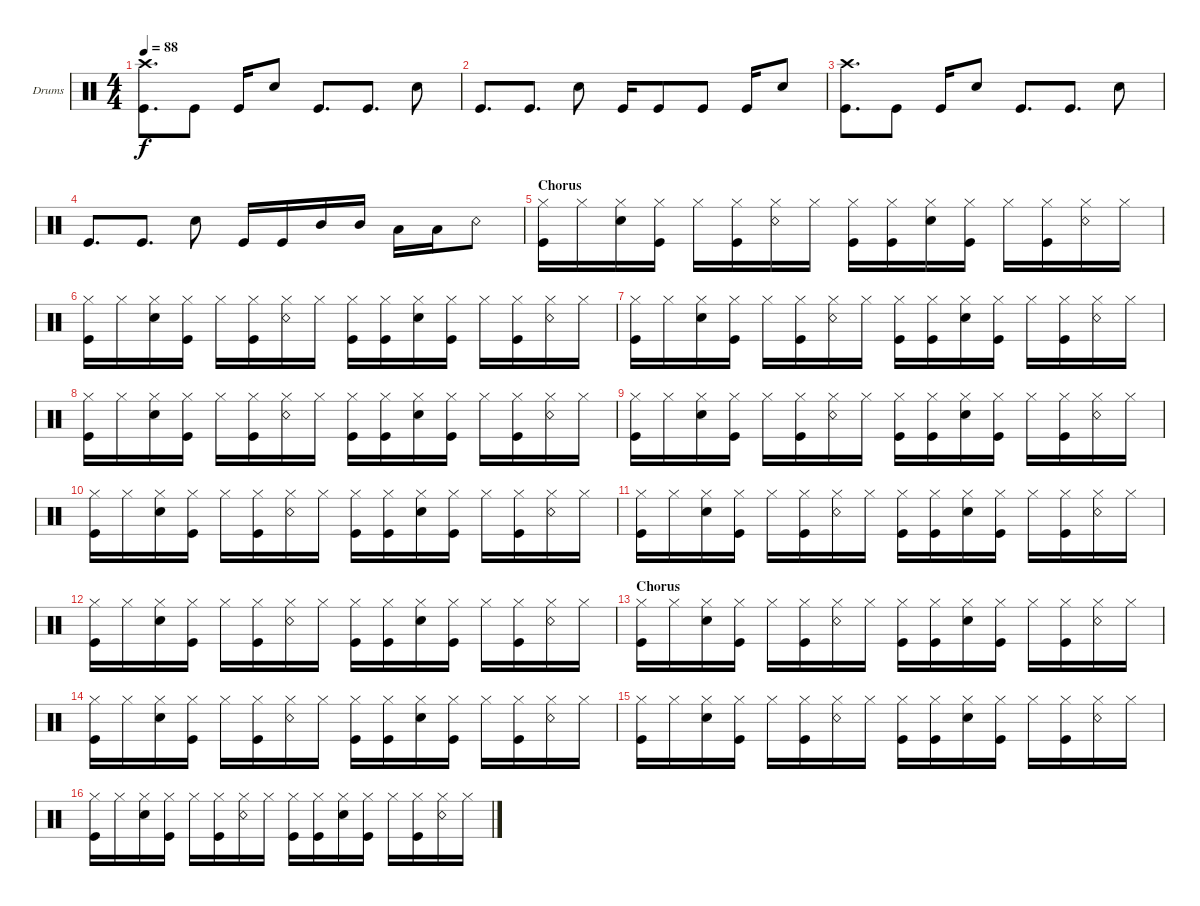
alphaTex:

\bracketExtendMode groupsimilarinstruments
\firstSystemTrackNameOrientation horizontal
\otherSystemsTrackNameOrientation horizontal
\track ("Drums" "Drums") {instrument percussion}
\staff {score}
\articulation defaults
\ts (4 4)
\tempo 88
\clef neutral
\ks c
("Kick (hit)" "Crash high (hit)").8{d dy f} "Kick (hit)".8 "Kick (hit)".16 "Snare (hit) 2".8 "Kick (hit)".8{d} "Kick (hit)".8{d} "Snare (hit) 2".8 |
"Kick (hit)".8{d} "Kick (hit)".8{d} "Snare (hit) 2".8 "Kick (hit)".16 "Kick (hit)".8 "Kick (hit)".8 "Kick (hit)".16 "Snare (hit) 2".8 |
("Kick (hit)" "Crash high (hit)").8{d} "Kick (hit)".8 "Kick (hit)".16 "Snare (hit) 2".8 "Kick (hit)".8{d} "Kick (hit)".8{d} "Snare (hit) 2".8 |
"Kick (hit)".8{d} "Kick (hit)".8{d} "Snare (hit) 2".8 "Kick (hit)".16 "Kick (hit)".16 "Mid Tom (hit)".16 "Mid Tom (hit)".16 "Low Tom (hit)".16 "Low Tom (hit)".16 "Snare (rim shot)".8 |
\section ("" "Chorus")
("Hi-Hat (closed)" "Kick (hit)").16 "Hi-Hat (closed)".16 ("Hi-Hat (closed)" "Snare (hit) 2").16 ("Hi-Hat (closed)" "Kick (hit)").16 "Hi-Hat (closed)".16 ("Hi-Hat (closed)" "Kick (hit)").16 ("Hi-Hat (closed)" "Snare (rim shot)").16 "Hi-Hat (closed)".16 ("Hi-Hat (closed)" "Kick (hit)").16 ("Hi-Hat (closed)" "Kick (hit)").16 ("Hi-Hat (closed)" "Snare (hit) 2").16 ("Hi-Hat (closed)" "Kick (hit)").16 "Hi-Hat (closed)".16 ("Hi-Hat (closed)" "Kick (hit)").16 ("Hi-Hat (closed)" "Snare (rim shot)").16 "Hi-Hat (closed)".16 |
("Hi-Hat (closed)" "Kick (hit)").16 "Hi-Hat (closed)".16 ("Hi-Hat (closed)" "Snare (hit) 2").16 ("Hi-Hat (closed)" "Kick (hit)").16 "Hi-Hat (closed)".16 ("Hi-Hat (closed)" "Kick (hit)").16 ("Hi-Hat (closed)" "Snare (rim shot)").16 "Hi-Hat (closed)".16 ("Hi-Hat (closed)" "Kick (hit)").16 ("Hi-Hat (closed)" "Kick (hit)").16 ("Hi-Hat (closed)" "Snare (hit) 2").16 ("Hi-Hat (closed)" "Kick (hit)").16 "Hi-Hat (closed)".16 ("Hi-Hat (closed)" "Kick (hit)").16 ("Hi-Hat (closed)" "Snare (rim shot)").16 "Hi-Hat (closed)".16 |
("Hi-Hat (closed)" "Kick (hit)").16 "Hi-Hat (closed)".16 ("Hi-Hat (closed)" "Snare (hit) 2").16 ("Hi-Hat (closed)" "Kick (hit)").16 "Hi-Hat (closed)".16 ("Hi-Hat (closed)" "Kick (hit)").16 ("Hi-Hat (closed)" "Snare (rim shot)").16 "Hi-Hat (closed)".16 ("Hi-Hat (closed)" "Kick (hit)").16 ("Hi-Hat (closed)" "Kick (hit)").16 ("Hi-Hat (closed)" "Snare (hit) 2").16 ("Hi-Hat (closed)" "Kick (hit)").16 "Hi-Hat (closed)".16 ("Hi-Hat (closed)" "Kick (hit)").16 ("Hi-Hat (closed)" "Snare (rim shot)").16 "Hi-Hat (closed)".16 |
("Hi-Hat (closed)" "Kick (hit)").16 "Hi-Hat (closed)".16 ("Hi-Hat (closed)" "Snare (hit) 2").16 ("Hi-Hat (closed)" "Kick (hit)").16 "Hi-Hat (closed)".16 ("Hi-Hat (closed)" "Kick (hit)").16 ("Hi-Hat (closed)" "Snare (rim shot)").16 "Hi-Hat (closed)".16 ("Hi-Hat (closed)" "Kick (hit)").16 ("Hi-Hat (closed)" "Kick (hit)").16 ("Hi-Hat (closed)" "Snare (hit) 2").16 ("Hi-Hat (closed)" "Kick (hit)").16 "Hi-Hat (closed)".16 ("Hi-Hat (closed)" "Kick (hit)").16 ("Hi-Hat (closed)" "Snare (rim shot)").16 "Hi-Hat (closed)".16 |
("Hi-Hat (closed)" "Kick (hit)").16 "Hi-Hat (closed)".16 ("Hi-Hat (closed)" "Snare (hit) 2").16 ("Hi-Hat (closed)" "Kick (hit)").16 "Hi-Hat (closed)".16 ("Hi-Hat (closed)" "Kick (hit)").16 ("Hi-Hat (closed)" "Snare (rim shot)").16 "Hi-Hat (closed)".16 ("Hi-Hat (closed)" "Kick (hit)").16 ("Hi-Hat (closed)" "Kick (hit)").16 ("Hi-Hat (closed)" "Snare (hit) 2").16 ("Hi-Hat (closed)" "Kick (hit)").16 "Hi-Hat (closed)".16 ("Hi-Hat (closed)" "Kick (hit)").16 ("Hi-Hat (closed)" "Snare (rim shot)").16 "Hi-Hat (closed)".16 |
("Hi-Hat (closed)" "Kick (hit)").16 "Hi-Hat (closed)".16 ("Hi-Hat (closed)" "Snare (hit) 2").16 ("Hi-Hat (closed)" "Kick (hit)").16 "Hi-Hat (closed)".16 ("Hi-Hat (closed)" "Kick (hit)").16 ("Hi-Hat (closed)" "Snare (rim shot)").16 "Hi-Hat (closed)".16 ("Hi-Hat (closed)" "Kick (hit)").16 ("Hi-Hat (closed)" "Kick (hit)").16 ("Hi-Hat (closed)" "Snare (hit) 2").16 ("Hi-Hat (closed)" "Kick (hit)").16 "Hi-Hat (closed)".16 ("Hi-Hat (closed)" "Kick (hit)").16 ("Hi-Hat (closed)" "Snare (rim shot)").16 "Hi-Hat (closed)".16 |
("Hi-Hat (closed)" "Kick (hit)").16 "Hi-Hat (closed)".16 ("Hi-Hat (closed)" "Snare (hit) 2").16 ("Hi-Hat (closed)" "Kick (hit)").16 "Hi-Hat (closed)".16 ("Hi-Hat (closed)" "Kick (hit)").16 ("Hi-Hat (closed)" "Snare (rim shot)").16 "Hi-Hat (closed)".16 ("Hi-Hat (closed)" "Kick (hit)").16 ("Hi-Hat (closed)" "Kick (hit)").16 ("Hi-Hat (closed)" "Snare (hit) 2").16 ("Hi-Hat (closed)" "Kick (hit)").16 "Hi-Hat (closed)".16 ("Hi-Hat (closed)" "Kick (hit)").16 ("Hi-Hat (closed)" "Snare (rim shot)").16 "Hi-Hat (closed)".16 |
("Hi-Hat (closed)" "Kick (hit)").16 "Hi-Hat (closed)".16 ("Hi-Hat (closed)" "Snare (hit) 2").16 ("Hi-Hat (closed)" "Kick (hit)").16 "Hi-Hat (closed)".16 ("Hi-Hat (closed)" "Kick (hit)").16 ("Hi-Hat (closed)" "Snare (rim shot)").16 "Hi-Hat (closed)".16 ("Hi-Hat (closed)" "Kick (hit)").16 ("Hi-Hat (closed)" "Kick (hit)").16 ("Hi-Hat (closed)" "Snare (hit) 2").16 ("Hi-Hat (closed)" "Kick (hit)").16 "Hi-Hat (closed)".16 ("Hi-Hat (closed)" "Kick (hit)").16 ("Hi-Hat (closed)" "Snare (rim shot)").16 "Hi-Hat (closed)".16 |
\section ("" "Chorus")
("Hi-Hat (closed)" "Kick (hit)").16 "Hi-Hat (closed)".16 ("Hi-Hat (closed)" "Snare (hit) 2").16 ("Hi-Hat (closed)" "Kick (hit)").16 "Hi-Hat (closed)".16 ("Hi-Hat (closed)" "Kick (hit)").16 ("Hi-Hat (closed)" "Snare (rim shot)").16 "Hi-Hat (closed)".16 ("Hi-Hat (closed)" "Kick (hit)").16 ("Hi-Hat (closed)" "Kick (hit)").16 ("Hi-Hat (closed)" "Snare (hit) 2").16 ("Hi-Hat (closed)" "Kick (hit)").16 "Hi-Hat (closed)".16 ("Hi-Hat (closed)" "Kick (hit)").16 ("Hi-Hat (closed)" "Snare (rim shot)").16 "Hi-Hat (closed)".16 |
("Hi-Hat (closed)" "Kick (hit)").16 "Hi-Hat (closed)".16 ("Hi-Hat (closed)" "Snare (hit) 2").16 ("Hi-Hat (closed)" "Kick (hit)").16 "Hi-Hat (closed)".16 ("Hi-Hat (closed)" "Kick (hit)").16 ("Hi-Hat (closed)" "Snare (rim shot)").16 "Hi-Hat (closed)".16 ("Hi-Hat (closed)" "Kick (hit)").16 ("Hi-Hat (closed)" "Kick (hit)").16 ("Hi-Hat (closed)" "Snare (hit) 2").16 ("Hi-Hat (closed)" "Kick (hit)").16 "Hi-Hat (closed)".16 ("Hi-Hat (closed)" "Kick (hit)").16 ("Hi-Hat (closed)" "Snare (rim shot)").16 "Hi-Hat (closed)".16 |
("Hi-Hat (closed)" "Kick (hit)").16 "Hi-Hat (closed)".16 ("Hi-Hat (closed)" "Snare (hit) 2").16 ("Hi-Hat (closed)" "Kick (hit)").16 "Hi-Hat (closed)".16 ("Hi-Hat (closed)" "Kick (hit)").16 ("Hi-Hat (closed)" "Snare (rim shot)").16 "Hi-Hat (closed)".16 ("Hi-Hat (closed)" "Kick (hit)").16 ("Hi-Hat (closed)" "Kick (hit)").16 ("Hi-Hat (closed)" "Snare (hit) 2").16 ("Hi-Hat (closed)" "Kick (hit)").16 "Hi-Hat (closed)".16 ("Hi-Hat (closed)" "Kick (hit)").16 ("Hi-Hat (closed)" "Snare (rim shot)").16 "Hi-Hat (closed)".16 |
("Hi-Hat (closed)" "Kick (hit)").16 "Hi-Hat (closed)".16 ("Hi-Hat (closed)" "Snare (hit) 2").16 ("Hi-Hat (closed)" "Kick (hit)").16 "Hi-Hat (closed)".16 ("Hi-Hat (closed)" "Kick (hit)").16 ("Hi-Hat (closed)" "Snare (rim shot)").16 "Hi-Hat (closed)".16 ("Hi-Hat (closed)" "Kick (hit)").16 ("Hi-Hat (closed)" "Kick (hit)").16 ("Hi-Hat (closed)" "Snare (hit) 2").16 ("Hi-Hat (closed)" "Kick (hit)").16 "Hi-Hat (closed)".16 ("Hi-Hat (closed)" "Kick (hit)").16 ("Hi-Hat (closed)" "Snare (rim shot)").16 "Hi-Hat (closed)".16
